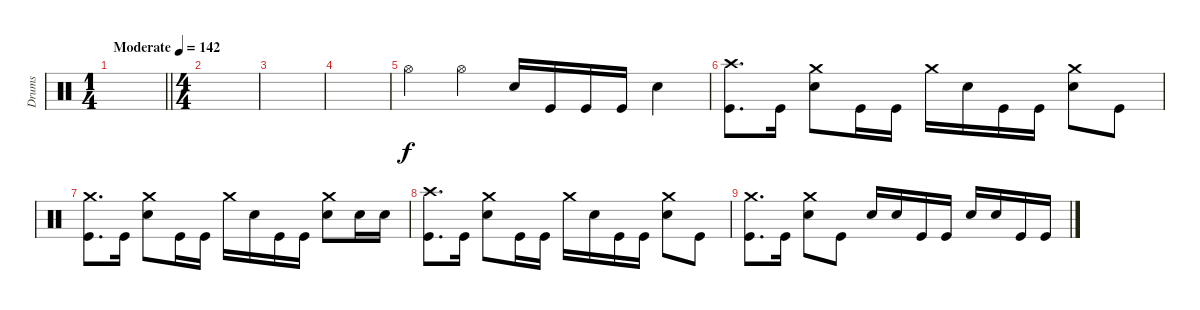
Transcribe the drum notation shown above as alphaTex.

\track ("Drums" "Drums") {instrument percussion}
\staff
\articulation defaults
\ts (1 4)
\tempo (142 "Moderate")
\clef neutral
\barLineRight lightlight
\ks c
|
\ts (4 4)
|
|
|
"Hi-Hat (open)".4 "Hi-Hat (open)".4 "Electric Snare (hit)".16 "Kick (hit)".16 "Kick (hit)".16 "Kick (hit)".16 "Electric Snare (hit)".4 |
("Crash high (hit)" "Kick (hit)").8{d} "Kick (hit)".16 ("Crash medium (hit)" "Electric Snare (hit)").8 "Kick (hit)".16 "Kick (hit)".16 "Crash medium (hit)".16 "Electric Snare (hit)".16 "Kick (hit)".16 "Kick (hit)".16 ("Crash medium (hit)" "Electric Snare (hit)").8 "Kick (hit)".8 |
("Crash medium (hit)" "Kick (hit)").8{d} "Kick (hit)".16 ("Crash medium (hit)" "Electric Snare (hit)").8 "Kick (hit)".16 "Kick (hit)".16 "Crash medium (hit)".16 "Electric Snare (hit)".16 "Kick (hit)".16 "Kick (hit)".16 ("Crash medium (hit)" "Electric Snare (hit)").8 "Electric Snare (hit)".16 "Electric Snare (hit)".16 |
("Crash high (hit)" "Kick (hit)").8{d} "Kick (hit)".16 ("Crash medium (hit)" "Electric Snare (hit)").8 "Kick (hit)".16 "Kick (hit)".16 "Crash medium (hit)".16 "Electric Snare (hit)".16 "Kick (hit)".16 "Kick (hit)".16 ("Crash medium (hit)" "Electric Snare (hit)").8 "Kick (hit)".8 |
("Crash medium (hit)" "Kick (hit)").8{d} "Kick (hit)".16 ("Crash medium (hit)" "Electric Snare (hit)").8 "Kick (hit)".8 "Electric Snare (hit)".16 "Electric Snare (hit)".16 "Kick (hit)".16 "Kick (hit)".16 "Electric Snare (hit)".16 "Electric Snare (hit)".16 "Kick (hit)".16 "Kick (hit)".16
